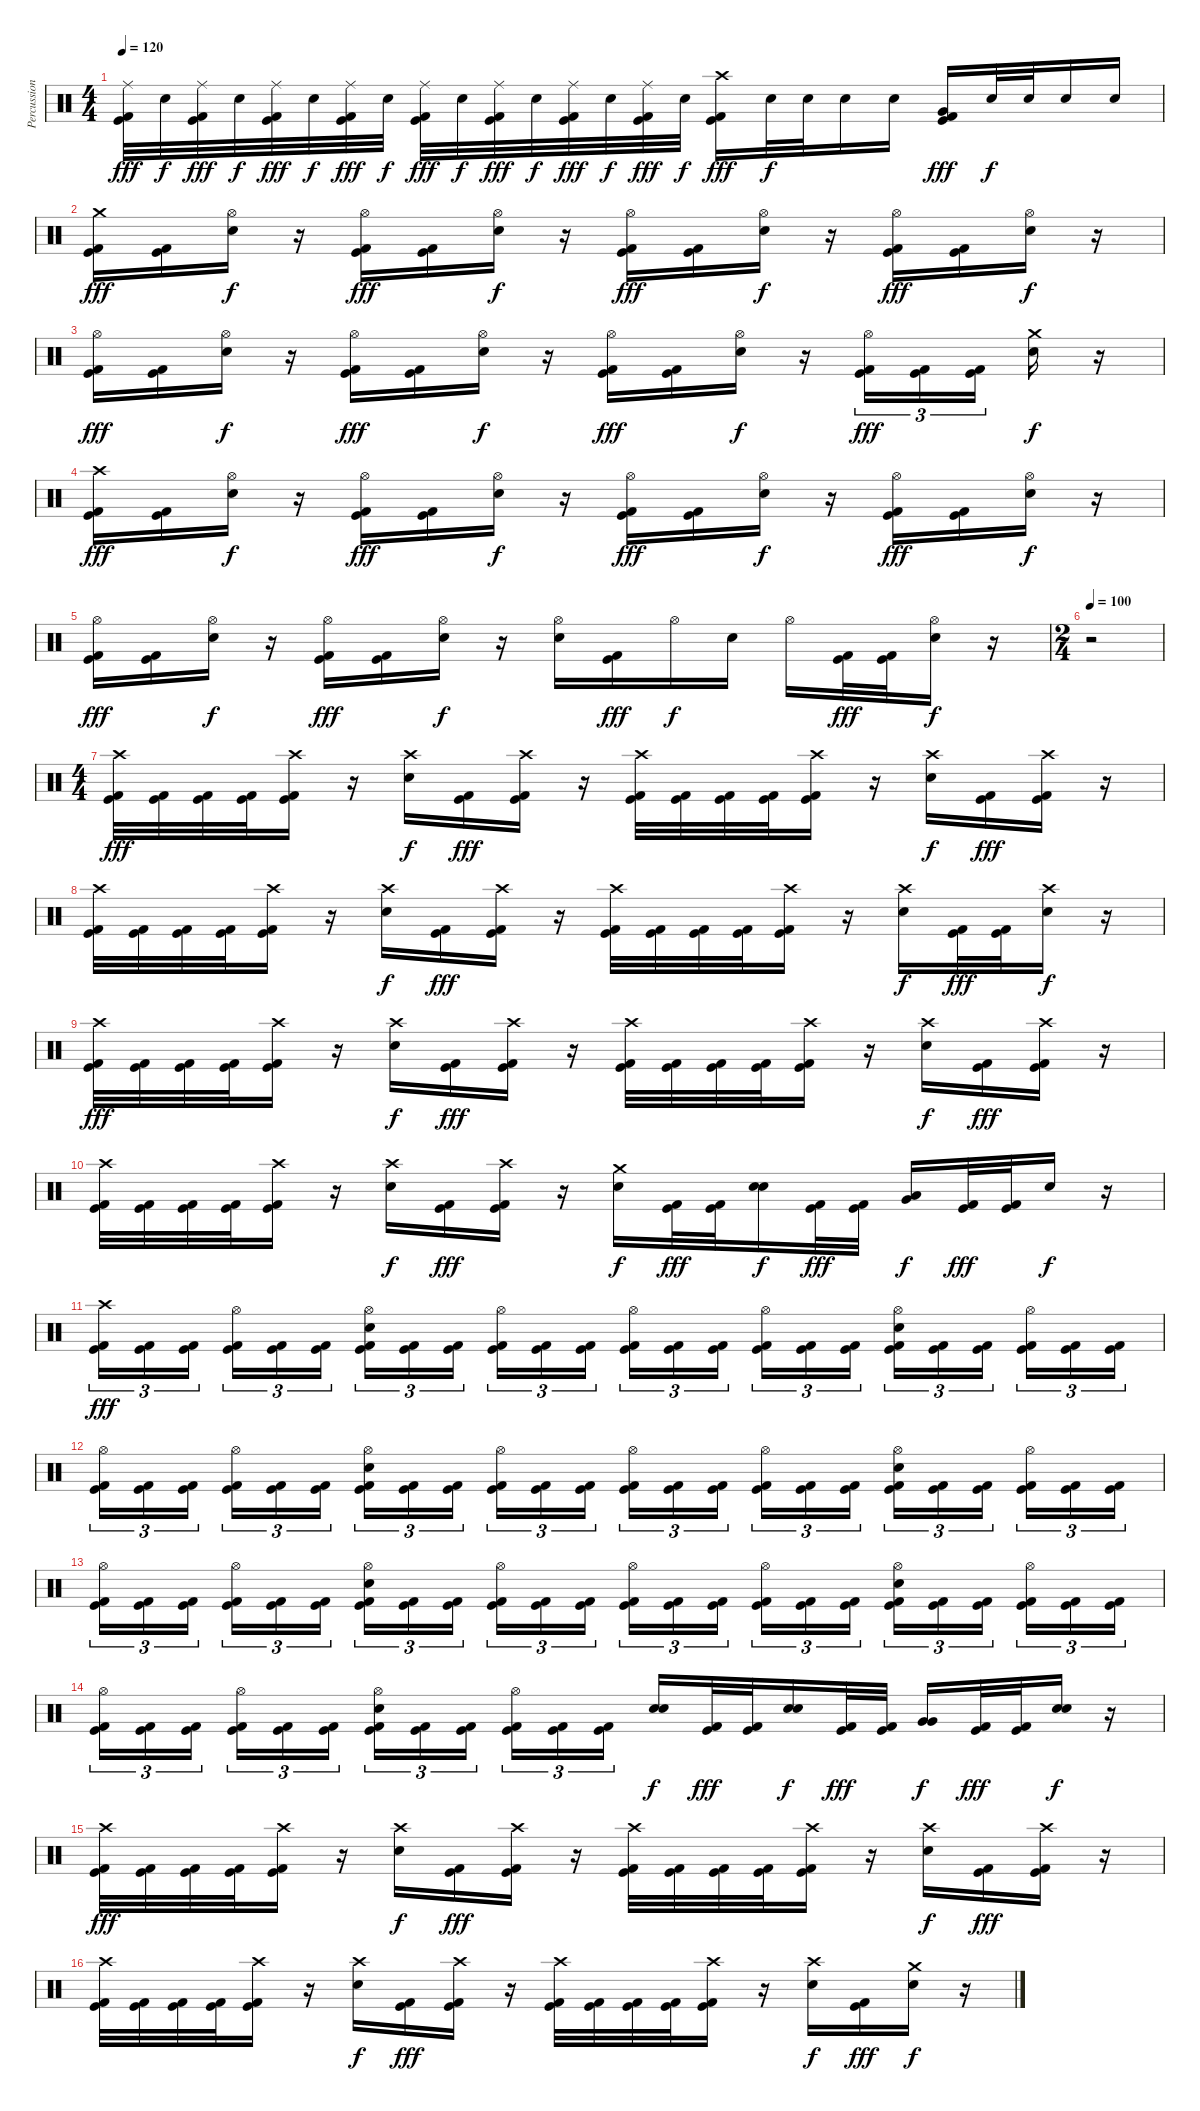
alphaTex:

\track ("Percussion" "Percussion") {instrument percussion}
\staff {score}
\articulation defaults
\ts (4 4)
\tempo 120
\clef neutral
\ks c
("Ride (middle)" "Kick (hit)" "Kick (hit) 2").32{dy fff} "Electric Snare (hit)".32{dy f} ("Ride (middle)" "Kick (hit)" "Kick (hit) 2").32{dy fff} "Electric Snare (hit)".32{dy f} ("Ride (middle)" "Kick (hit)" "Kick (hit) 2").32{dy fff} "Electric Snare (hit)".32{dy f} ("Ride (middle)" "Kick (hit)" "Kick (hit) 2").32{dy fff} "Electric Snare (hit)".32{dy f} ("Ride (middle)" "Kick (hit)" "Kick (hit) 2").32{dy fff} "Electric Snare (hit)".32{dy f} ("Ride (middle)" "Kick (hit)" "Kick (hit) 2").32{dy fff} "Electric Snare (hit)".32{dy f} ("Ride (middle)" "Kick (hit)" "Kick (hit) 2").32{dy fff} "Electric Snare (hit)".32{dy f} ("Ride (middle)" "Kick (hit)" "Kick (hit) 2").32{dy fff} "Electric Snare (hit)".32{dy f} ("Crash high (hit)" "Kick (hit)" "Kick (hit) 2").16{dy fff} "Electric Snare (hit)".32{dy f} "Electric Snare (hit)".32 "Electric Snare (hit)".16 "Electric Snare (hit)".16 ("Very Low Tom (hit)" "Kick (hit)" "Kick (hit) 2").16{dy fff} "Electric Snare (hit)".32{dy f} "Electric Snare (hit)".32 "Electric Snare (hit)".16 "Electric Snare (hit)".16 |
("Crash medium (hit)" "Kick (hit)" "Kick (hit) 2").16{dy fff} ("Kick (hit)" "Kick (hit) 2").16 ("Hi-Hat (open)" "Electric Snare (hit)").16{dy f} r.16 ("Hi-Hat (open)" "Kick (hit)" "Kick (hit) 2").16{dy fff} ("Kick (hit)" "Kick (hit) 2").16 ("Hi-Hat (open)" "Electric Snare (hit)").16{dy f} r.16 ("Hi-Hat (open)" "Kick (hit)" "Kick (hit) 2").16{dy fff} ("Kick (hit)" "Kick (hit) 2").16 ("Hi-Hat (open)" "Electric Snare (hit)").16{dy f} r.16 ("Hi-Hat (open)" "Kick (hit)" "Kick (hit) 2").16{dy fff} ("Kick (hit)" "Kick (hit) 2").16 ("Hi-Hat (open)" "Electric Snare (hit)").16{dy f} r.16 |
("Hi-Hat (open)" "Kick (hit)" "Kick (hit) 2").16{dy fff} ("Kick (hit)" "Kick (hit) 2").16 ("Hi-Hat (open)" "Electric Snare (hit)").16{dy f} r.16 ("Hi-Hat (open)" "Kick (hit)" "Kick (hit) 2").16{dy fff} ("Kick (hit)" "Kick (hit) 2").16 ("Hi-Hat (open)" "Electric Snare (hit)").16{dy f} r.16 ("Hi-Hat (open)" "Kick (hit)" "Kick (hit) 2").16{dy fff} ("Kick (hit)" "Kick (hit) 2").16 ("Hi-Hat (open)" "Electric Snare (hit)").16{dy f} r.16 ("Hi-Hat (open)" "Kick (hit)" "Kick (hit) 2").16{tu (3 2) dy fff} ("Kick (hit)" "Kick (hit) 2").16{tu (3 2)} ("Kick (hit)" "Kick (hit) 2").16{tu (3 2)} ("Crash medium (hit)" "Electric Snare (hit)").16{dy f} r.16 |
("Crash high (hit)" "Kick (hit)" "Kick (hit) 2").16{dy fff} ("Kick (hit)" "Kick (hit) 2").16 ("Hi-Hat (open)" "Electric Snare (hit)").16{dy f} r.16 ("Hi-Hat (open)" "Kick (hit)" "Kick (hit) 2").16{dy fff} ("Kick (hit)" "Kick (hit) 2").16 ("Hi-Hat (open)" "Electric Snare (hit)").16{dy f} r.16 ("Hi-Hat (open)" "Kick (hit)" "Kick (hit) 2").16{dy fff} ("Kick (hit)" "Kick (hit) 2").16 ("Hi-Hat (open)" "Electric Snare (hit)").16{dy f} r.16 ("Hi-Hat (open)" "Kick (hit)" "Kick (hit) 2").16{dy fff} ("Kick (hit)" "Kick (hit) 2").16 ("Hi-Hat (open)" "Electric Snare (hit)").16{dy f} r.16 |
("Hi-Hat (open)" "Kick (hit)" "Kick (hit) 2").16{dy fff} ("Kick (hit)" "Kick (hit) 2").16 ("Hi-Hat (open)" "Electric Snare (hit)").16{dy f} r.16 ("Hi-Hat (open)" "Kick (hit)" "Kick (hit) 2").16{dy fff} ("Kick (hit)" "Kick (hit) 2").16 ("Hi-Hat (open)" "Electric Snare (hit)").16{dy f} r.16 ("Hi-Hat (open)" "Electric Snare (hit)").16 ("Kick (hit)" "Kick (hit) 2").16{dy fff} "Hi-Hat (open)".16{dy f} "Electric Snare (hit)".16 "Hi-Hat (open)".16 ("Kick (hit)" "Kick (hit) 2").32{dy fff} ("Kick (hit)" "Kick (hit) 2").32 ("Hi-Hat (open)" "Electric Snare (hit)").16{dy f} r.16 |
\ts (2 4)
\tempo 100
r.2 |
\ts (4 4)
("Crash high (hit)" "Kick (hit)" "Kick (hit) 2").32{dy fff} ("Kick (hit)" "Kick (hit) 2").32 ("Kick (hit)" "Kick (hit) 2").32 ("Kick (hit)" "Kick (hit) 2").32 ("Crash high (hit)" "Kick (hit)" "Kick (hit) 2").16 r.16 ("Crash high (hit)" "Electric Snare (hit)").16{dy f} ("Kick (hit)" "Kick (hit) 2").16{dy fff} ("Crash high (hit)" "Kick (hit)" "Kick (hit) 2").16 r.16 ("Crash high (hit)" "Kick (hit)" "Kick (hit) 2").32 ("Kick (hit)" "Kick (hit) 2").32 ("Kick (hit)" "Kick (hit) 2").32 ("Kick (hit)" "Kick (hit) 2").32 ("Crash high (hit)" "Kick (hit)" "Kick (hit) 2").16 r.16 ("Crash high (hit)" "Electric Snare (hit)").16{dy f} ("Kick (hit)" "Kick (hit) 2").16{dy fff} ("Crash high (hit)" "Kick (hit)" "Kick (hit) 2").16 r.16 |
("Crash high (hit)" "Kick (hit)" "Kick (hit) 2").32 ("Kick (hit)" "Kick (hit) 2").32 ("Kick (hit)" "Kick (hit) 2").32 ("Kick (hit)" "Kick (hit) 2").32 ("Crash high (hit)" "Kick (hit)" "Kick (hit) 2").16 r.16 ("Crash high (hit)" "Electric Snare (hit)").16{dy f} ("Kick (hit)" "Kick (hit) 2").16{dy fff} ("Crash high (hit)" "Kick (hit)" "Kick (hit) 2").16 r.16 ("Crash high (hit)" "Kick (hit)" "Kick (hit) 2").32 ("Kick (hit)" "Kick (hit) 2").32 ("Kick (hit)" "Kick (hit) 2").32 ("Kick (hit)" "Kick (hit) 2").32 ("Crash high (hit)" "Kick (hit)" "Kick (hit) 2").16 r.16 ("Crash high (hit)" "Electric Snare (hit)").16{dy f} ("Kick (hit)" "Kick (hit) 2").32{dy fff} ("Kick (hit)" "Kick (hit) 2").32 ("Crash high (hit)" "Electric Snare (hit)").16{dy f} r.16 |
("Crash high (hit)" "Kick (hit)" "Kick (hit) 2").32{dy fff} ("Kick (hit)" "Kick (hit) 2").32 ("Kick (hit)" "Kick (hit) 2").32 ("Kick (hit)" "Kick (hit) 2").32 ("Crash high (hit)" "Kick (hit)" "Kick (hit) 2").16 r.16 ("Crash high (hit)" "Electric Snare (hit)").16{dy f} ("Kick (hit)" "Kick (hit) 2").16{dy fff} ("Crash high (hit)" "Kick (hit)" "Kick (hit) 2").16 r.16 ("Crash high (hit)" "Kick (hit)" "Kick (hit) 2").32 ("Kick (hit)" "Kick (hit) 2").32 ("Kick (hit)" "Kick (hit) 2").32 ("Kick (hit)" "Kick (hit) 2").32 ("Crash high (hit)" "Kick (hit)" "Kick (hit) 2").16 r.16 ("Crash high (hit)" "Electric Snare (hit)").16{dy f} ("Kick (hit)" "Kick (hit) 2").16{dy fff} ("Crash high (hit)" "Kick (hit)" "Kick (hit) 2").16 r.16 |
("Crash high (hit)" "Kick (hit)" "Kick (hit) 2").32 ("Kick (hit)" "Kick (hit) 2").32 ("Kick (hit)" "Kick (hit) 2").32 ("Kick (hit)" "Kick (hit) 2").32 ("Crash high (hit)" "Kick (hit)" "Kick (hit) 2").16 r.16 ("Crash high (hit)" "Electric Snare (hit)").16{dy f} ("Kick (hit)" "Kick (hit) 2").16{dy fff} ("Crash high (hit)" "Kick (hit)" "Kick (hit) 2").16 r.16 ("Crash medium (hit)" "Electric Snare (hit)").16{dy f} ("Kick (hit)" "Kick (hit) 2").32{dy fff} ("Kick (hit)" "Kick (hit) 2").32 ("Electric Snare (hit)" "Electric Snare (hit)").16{bu 60 dy f} ("Kick (hit)" "Kick (hit) 2").32{dy fff} ("Kick (hit)" "Kick (hit) 2").32 ("Low Tom (hit)" "Very Low Tom (hit)").16{bu 60 dy f} ("Kick (hit)" "Kick (hit) 2").32{dy fff} ("Kick (hit)" "Kick (hit) 2").32 "Electric Snare (hit)".16{dy f} r.16 |
("Crash high (hit)" "Kick (hit)" "Kick (hit) 2").16{tu (3 2) dy fff} ("Kick (hit)" "Kick (hit) 2").16{tu (3 2)} ("Kick (hit)" "Kick (hit) 2").16{tu (3 2)} ("Hi-Hat (open)" "Kick (hit)" "Kick (hit) 2").16{tu (3 2)} ("Kick (hit)" "Kick (hit) 2").16{tu (3 2)} ("Kick (hit)" "Kick (hit) 2").16{tu (3 2)} ("Hi-Hat (open)" "Electric Snare (hit)" "Kick (hit)" "Kick (hit) 2").16{tu (3 2)} ("Kick (hit)" "Kick (hit) 2").16{tu (3 2)} ("Kick (hit)" "Kick (hit) 2").16{tu (3 2)} ("Hi-Hat (open)" "Kick (hit)" "Kick (hit) 2").16{tu (3 2)} ("Kick (hit)" "Kick (hit) 2").16{tu (3 2)} ("Kick (hit)" "Kick (hit) 2").16{tu (3 2)} ("Hi-Hat (open)" "Kick (hit)" "Kick (hit) 2").16{tu (3 2)} ("Kick (hit)" "Kick (hit) 2").16{tu (3 2)} ("Kick (hit)" "Kick (hit) 2").16{tu (3 2)} ("Hi-Hat (open)" "Kick (hit)" "Kick (hit) 2").16{tu (3 2)} ("Kick (hit)" "Kick (hit) 2").16{tu (3 2)} ("Kick (hit)" "Kick (hit) 2").16{tu (3 2)} ("Hi-Hat (open)" "Electric Snare (hit)" "Kick (hit)" "Kick (hit) 2").16{tu (3 2)} ("Kick (hit)" "Kick (hit) 2").16{tu (3 2)} ("Kick (hit)" "Kick (hit) 2").16{tu (3 2)} ("Hi-Hat (open)" "Kick (hit)" "Kick (hit) 2").16{tu (3 2)} ("Kick (hit)" "Kick (hit) 2").16{tu (3 2)} ("Kick (hit)" "Kick (hit) 2").16{tu (3 2)} |
("Hi-Hat (open)" "Kick (hit)" "Kick (hit) 2").16{tu (3 2)} ("Kick (hit)" "Kick (hit) 2").16{tu (3 2)} ("Kick (hit)" "Kick (hit) 2").16{tu (3 2)} ("Hi-Hat (open)" "Kick (hit)" "Kick (hit) 2").16{tu (3 2)} ("Kick (hit)" "Kick (hit) 2").16{tu (3 2)} ("Kick (hit)" "Kick (hit) 2").16{tu (3 2)} ("Hi-Hat (open)" "Electric Snare (hit)" "Kick (hit)" "Kick (hit) 2").16{tu (3 2)} ("Kick (hit)" "Kick (hit) 2").16{tu (3 2)} ("Kick (hit)" "Kick (hit) 2").16{tu (3 2)} ("Hi-Hat (open)" "Kick (hit)" "Kick (hit) 2").16{tu (3 2)} ("Kick (hit)" "Kick (hit) 2").16{tu (3 2)} ("Kick (hit)" "Kick (hit) 2").16{tu (3 2)} ("Hi-Hat (open)" "Kick (hit)" "Kick (hit) 2").16{tu (3 2)} ("Kick (hit)" "Kick (hit) 2").16{tu (3 2)} ("Kick (hit)" "Kick (hit) 2").16{tu (3 2)} ("Hi-Hat (open)" "Kick (hit)" "Kick (hit) 2").16{tu (3 2)} ("Kick (hit)" "Kick (hit) 2").16{tu (3 2)} ("Kick (hit)" "Kick (hit) 2").16{tu (3 2)} ("Hi-Hat (open)" "Electric Snare (hit)" "Kick (hit)" "Kick (hit) 2").16{tu (3 2)} ("Kick (hit)" "Kick (hit) 2").16{tu (3 2)} ("Kick (hit)" "Kick (hit) 2").16{tu (3 2)} ("Hi-Hat (open)" "Kick (hit)" "Kick (hit) 2").16{tu (3 2)} ("Kick (hit)" "Kick (hit) 2").16{tu (3 2)} ("Kick (hit)" "Kick (hit) 2").16{tu (3 2)} |
("Hi-Hat (open)" "Kick (hit)" "Kick (hit) 2").16{tu (3 2)} ("Kick (hit)" "Kick (hit) 2").16{tu (3 2)} ("Kick (hit)" "Kick (hit) 2").16{tu (3 2)} ("Hi-Hat (open)" "Kick (hit)" "Kick (hit) 2").16{tu (3 2)} ("Kick (hit)" "Kick (hit) 2").16{tu (3 2)} ("Kick (hit)" "Kick (hit) 2").16{tu (3 2)} ("Hi-Hat (open)" "Electric Snare (hit)" "Kick (hit)" "Kick (hit) 2").16{tu (3 2)} ("Kick (hit)" "Kick (hit) 2").16{tu (3 2)} ("Kick (hit)" "Kick (hit) 2").16{tu (3 2)} ("Hi-Hat (open)" "Kick (hit)" "Kick (hit) 2").16{tu (3 2)} ("Kick (hit)" "Kick (hit) 2").16{tu (3 2)} ("Kick (hit)" "Kick (hit) 2").16{tu (3 2)} ("Hi-Hat (open)" "Kick (hit)" "Kick (hit) 2").16{tu (3 2)} ("Kick (hit)" "Kick (hit) 2").16{tu (3 2)} ("Kick (hit)" "Kick (hit) 2").16{tu (3 2)} ("Hi-Hat (open)" "Kick (hit)" "Kick (hit) 2").16{tu (3 2)} ("Kick (hit)" "Kick (hit) 2").16{tu (3 2)} ("Kick (hit)" "Kick (hit) 2").16{tu (3 2)} ("Hi-Hat (open)" "Electric Snare (hit)" "Kick (hit)" "Kick (hit) 2").16{tu (3 2)} ("Kick (hit)" "Kick (hit) 2").16{tu (3 2)} ("Kick (hit)" "Kick (hit) 2").16{tu (3 2)} ("Hi-Hat (open)" "Kick (hit)" "Kick (hit) 2").16{tu (3 2)} ("Kick (hit)" "Kick (hit) 2").16{tu (3 2)} ("Kick (hit)" "Kick (hit) 2").16{tu (3 2)} |
("Hi-Hat (open)" "Kick (hit)" "Kick (hit) 2").16{tu (3 2)} ("Kick (hit)" "Kick (hit) 2").16{tu (3 2)} ("Kick (hit)" "Kick (hit) 2").16{tu (3 2)} ("Hi-Hat (open)" "Kick (hit)" "Kick (hit) 2").16{tu (3 2)} ("Kick (hit)" "Kick (hit) 2").16{tu (3 2)} ("Kick (hit)" "Kick (hit) 2").16{tu (3 2)} ("Hi-Hat (open)" "Electric Snare (hit)" "Kick (hit)" "Kick (hit) 2").16{tu (3 2)} ("Kick (hit)" "Kick (hit) 2").16{tu (3 2)} ("Kick (hit)" "Kick (hit) 2").16{tu (3 2)} ("Hi-Hat (open)" "Kick (hit)" "Kick (hit) 2").16{tu (3 2)} ("Kick (hit)" "Kick (hit) 2").16{tu (3 2)} ("Kick (hit)" "Kick (hit) 2").16{tu (3 2)} ("Electric Snare (hit)" "Electric Snare (hit)").16{bu 60 dy f} ("Kick (hit)" "Kick (hit) 2").32{dy fff} ("Kick (hit)" "Kick (hit) 2").32 ("Electric Snare (hit)" "Electric Snare (hit)").16{bu 60 dy f} ("Kick (hit)" "Kick (hit) 2").32{dy fff} ("Kick (hit)" "Kick (hit) 2").32 ("Very Low Tom (hit)" "Very Low Tom (hit)").16{bu 60 dy f} ("Kick (hit)" "Kick (hit) 2").32{dy fff} ("Kick (hit)" "Kick (hit) 2").32 ("Electric Snare (hit)" "Electric Snare (hit)").16{bu 60 dy f} r.16 |
("Crash high (hit)" "Kick (hit)" "Kick (hit) 2").32{dy fff} ("Kick (hit)" "Kick (hit) 2").32 ("Kick (hit)" "Kick (hit) 2").32 ("Kick (hit)" "Kick (hit) 2").32 ("Crash high (hit)" "Kick (hit)" "Kick (hit) 2").16 r.16 ("Crash high (hit)" "Electric Snare (hit)").16{dy f} ("Kick (hit)" "Kick (hit) 2").16{dy fff} ("Crash high (hit)" "Kick (hit)" "Kick (hit) 2").16 r.16 ("Crash high (hit)" "Kick (hit)" "Kick (hit) 2").32 ("Kick (hit)" "Kick (hit) 2").32 ("Kick (hit)" "Kick (hit) 2").32 ("Kick (hit)" "Kick (hit) 2").32 ("Crash high (hit)" "Kick (hit)" "Kick (hit) 2").16 r.16 ("Crash high (hit)" "Electric Snare (hit)").16{dy f} ("Kick (hit)" "Kick (hit) 2").16{dy fff} ("Crash high (hit)" "Kick (hit)" "Kick (hit) 2").16 r.16 |
("Crash high (hit)" "Kick (hit)" "Kick (hit) 2").32 ("Kick (hit)" "Kick (hit) 2").32 ("Kick (hit)" "Kick (hit) 2").32 ("Kick (hit)" "Kick (hit) 2").32 ("Crash high (hit)" "Kick (hit)" "Kick (hit) 2").16 r.16 ("Crash high (hit)" "Electric Snare (hit)").16{dy f} ("Kick (hit)" "Kick (hit) 2").16{dy fff} ("Crash high (hit)" "Kick (hit)" "Kick (hit) 2").16 r.16 ("Crash high (hit)" "Kick (hit)" "Kick (hit) 2").32 ("Kick (hit)" "Kick (hit) 2").32 ("Kick (hit)" "Kick (hit) 2").32 ("Kick (hit)" "Kick (hit) 2").32 ("Crash high (hit)" "Kick (hit)" "Kick (hit) 2").16 r.16 ("Crash high (hit)" "Electric Snare (hit)").16{dy f} ("Kick (hit)" "Kick (hit) 2").16{dy fff} ("Crash medium (hit)" "Electric Snare (hit)").16{dy f} r.16
